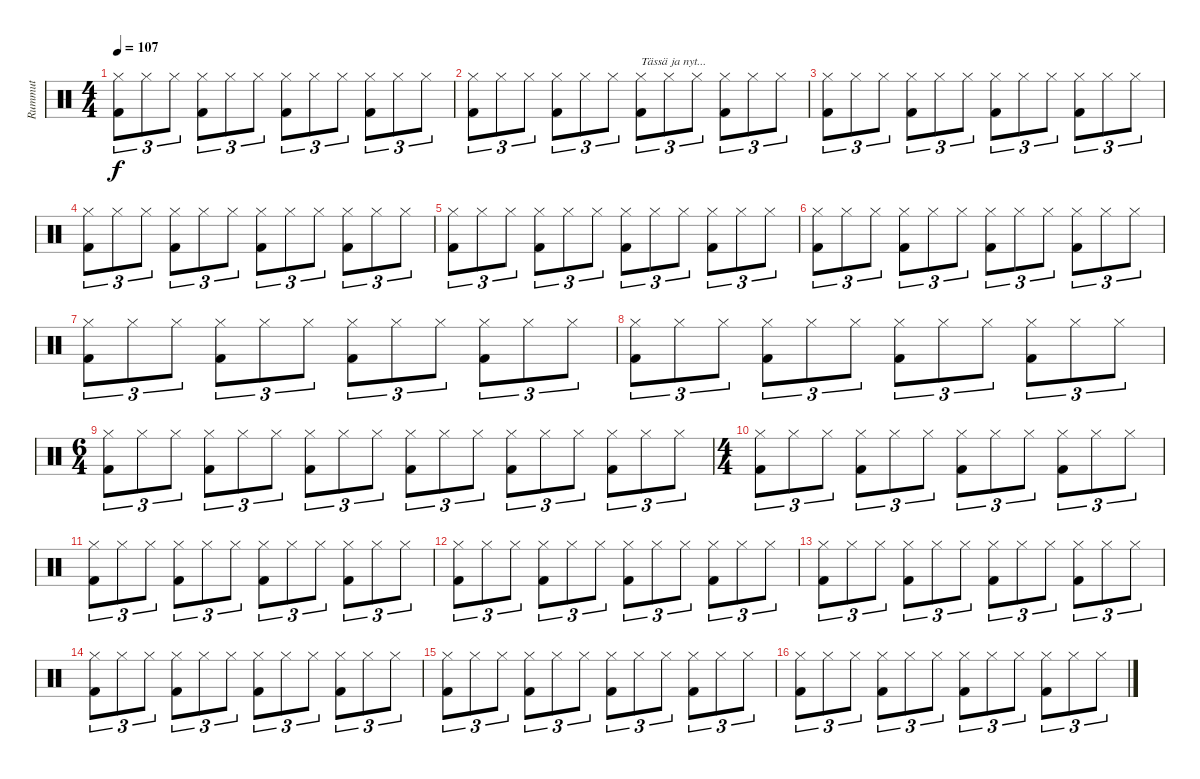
\track ("Rummut" "Rummut") {instrument percussion}
\staff {score}
\articulation defaults
\ts (4 4)
\tempo 107
\clef neutral
\ks c
("Hi-Hat (closed)" "Kick (hit) 2").8{tu (3 2) dy f} "Hi-Hat (closed)".8{tu (3 2)} "Hi-Hat (closed)".8{tu (3 2)} ("Hi-Hat (closed)" "Kick (hit) 2").8{tu (3 2)} "Hi-Hat (closed)".8{tu (3 2)} "Hi-Hat (closed)".8{tu (3 2)} ("Hi-Hat (closed)" "Kick (hit) 2").8{tu (3 2)} "Hi-Hat (closed)".8{tu (3 2)} "Hi-Hat (closed)".8{tu (3 2)} ("Hi-Hat (closed)" "Kick (hit) 2").8{tu (3 2)} "Hi-Hat (closed)".8{tu (3 2)} "Hi-Hat (closed)".8{tu (3 2)} |
("Hi-Hat (closed)" "Kick (hit) 2").8{tu (3 2)} "Hi-Hat (closed)".8{tu (3 2)} "Hi-Hat (closed)".8{tu (3 2)} ("Hi-Hat (closed)" "Kick (hit) 2").8{tu (3 2)} "Hi-Hat (closed)".8{tu (3 2)} "Hi-Hat (closed)".8{tu (3 2)} ("Hi-Hat (closed)" "Kick (hit) 2").8{tu (3 2) txt "Tässä ja nyt..."} "Hi-Hat (closed)".8{tu (3 2)} "Hi-Hat (closed)".8{tu (3 2)} ("Hi-Hat (closed)" "Kick (hit) 2").8{tu (3 2)} "Hi-Hat (closed)".8{tu (3 2)} "Hi-Hat (closed)".8{tu (3 2)} |
("Hi-Hat (closed)" "Kick (hit) 2").8{tu (3 2)} "Hi-Hat (closed)".8{tu (3 2)} "Hi-Hat (closed)".8{tu (3 2)} ("Hi-Hat (closed)" "Kick (hit) 2").8{tu (3 2)} "Hi-Hat (closed)".8{tu (3 2)} "Hi-Hat (closed)".8{tu (3 2)} ("Hi-Hat (closed)" "Kick (hit) 2").8{tu (3 2)} "Hi-Hat (closed)".8{tu (3 2)} "Hi-Hat (closed)".8{tu (3 2)} ("Hi-Hat (closed)" "Kick (hit) 2").8{tu (3 2)} "Hi-Hat (closed)".8{tu (3 2)} "Hi-Hat (closed)".8{tu (3 2)} |
("Hi-Hat (closed)" "Kick (hit) 2").8{tu (3 2)} "Hi-Hat (closed)".8{tu (3 2)} "Hi-Hat (closed)".8{tu (3 2)} ("Hi-Hat (closed)" "Kick (hit) 2").8{tu (3 2)} "Hi-Hat (closed)".8{tu (3 2)} "Hi-Hat (closed)".8{tu (3 2)} ("Hi-Hat (closed)" "Kick (hit) 2").8{tu (3 2)} "Hi-Hat (closed)".8{tu (3 2)} "Hi-Hat (closed)".8{tu (3 2)} ("Hi-Hat (closed)" "Kick (hit) 2").8{tu (3 2)} "Hi-Hat (closed)".8{tu (3 2)} "Hi-Hat (closed)".8{tu (3 2)} |
("Hi-Hat (closed)" "Kick (hit) 2").8{tu (3 2)} "Hi-Hat (closed)".8{tu (3 2)} "Hi-Hat (closed)".8{tu (3 2)} ("Hi-Hat (closed)" "Kick (hit) 2").8{tu (3 2)} "Hi-Hat (closed)".8{tu (3 2)} "Hi-Hat (closed)".8{tu (3 2)} ("Hi-Hat (closed)" "Kick (hit) 2").8{tu (3 2)} "Hi-Hat (closed)".8{tu (3 2)} "Hi-Hat (closed)".8{tu (3 2)} ("Hi-Hat (closed)" "Kick (hit) 2").8{tu (3 2)} "Hi-Hat (closed)".8{tu (3 2)} "Hi-Hat (closed)".8{tu (3 2)} |
("Hi-Hat (closed)" "Kick (hit) 2").8{tu (3 2)} "Hi-Hat (closed)".8{tu (3 2)} "Hi-Hat (closed)".8{tu (3 2)} ("Hi-Hat (closed)" "Kick (hit) 2").8{tu (3 2)} "Hi-Hat (closed)".8{tu (3 2)} "Hi-Hat (closed)".8{tu (3 2)} ("Hi-Hat (closed)" "Kick (hit) 2").8{tu (3 2)} "Hi-Hat (closed)".8{tu (3 2)} "Hi-Hat (closed)".8{tu (3 2)} ("Hi-Hat (closed)" "Kick (hit) 2").8{tu (3 2)} "Hi-Hat (closed)".8{tu (3 2)} "Hi-Hat (closed)".8{tu (3 2)} |
("Hi-Hat (closed)" "Kick (hit) 2").8{tu (3 2)} "Hi-Hat (closed)".8{tu (3 2)} "Hi-Hat (closed)".8{tu (3 2)} ("Hi-Hat (closed)" "Kick (hit) 2").8{tu (3 2)} "Hi-Hat (closed)".8{tu (3 2)} "Hi-Hat (closed)".8{tu (3 2)} ("Hi-Hat (closed)" "Kick (hit) 2").8{tu (3 2)} "Hi-Hat (closed)".8{tu (3 2)} "Hi-Hat (closed)".8{tu (3 2)} ("Hi-Hat (closed)" "Kick (hit) 2").8{tu (3 2)} "Hi-Hat (closed)".8{tu (3 2)} "Hi-Hat (closed)".8{tu (3 2)} |
("Hi-Hat (closed)" "Kick (hit) 2").8{tu (3 2)} "Hi-Hat (closed)".8{tu (3 2)} "Hi-Hat (closed)".8{tu (3 2)} ("Hi-Hat (closed)" "Kick (hit) 2").8{tu (3 2)} "Hi-Hat (closed)".8{tu (3 2)} "Hi-Hat (closed)".8{tu (3 2)} ("Hi-Hat (closed)" "Kick (hit) 2").8{tu (3 2)} "Hi-Hat (closed)".8{tu (3 2)} "Hi-Hat (closed)".8{tu (3 2)} ("Hi-Hat (closed)" "Kick (hit) 2").8{tu (3 2)} "Hi-Hat (closed)".8{tu (3 2)} "Hi-Hat (closed)".8{tu (3 2)} |
\ts (6 4)
("Hi-Hat (closed)" "Kick (hit) 2").8{tu (3 2)} "Hi-Hat (closed)".8{tu (3 2)} "Hi-Hat (closed)".8{tu (3 2)} ("Hi-Hat (closed)" "Kick (hit) 2").8{tu (3 2)} "Hi-Hat (closed)".8{tu (3 2)} "Hi-Hat (closed)".8{tu (3 2)} ("Hi-Hat (closed)" "Kick (hit) 2").8{tu (3 2)} "Hi-Hat (closed)".8{tu (3 2)} "Hi-Hat (closed)".8{tu (3 2)} ("Hi-Hat (closed)" "Kick (hit) 2").8{tu (3 2)} "Hi-Hat (closed)".8{tu (3 2)} "Hi-Hat (closed)".8{tu (3 2)} ("Hi-Hat (closed)" "Kick (hit) 2").8{tu (3 2)} "Hi-Hat (closed)".8{tu (3 2)} "Hi-Hat (closed)".8{tu (3 2)} ("Hi-Hat (closed)" "Kick (hit) 2").8{tu (3 2)} "Hi-Hat (closed)".8{tu (3 2)} "Hi-Hat (closed)".8{tu (3 2)} |
\ts (4 4)
("Hi-Hat (closed)" "Kick (hit) 2").8{tu (3 2)} "Hi-Hat (closed)".8{tu (3 2)} "Hi-Hat (closed)".8{tu (3 2)} ("Hi-Hat (closed)" "Kick (hit) 2").8{tu (3 2)} "Hi-Hat (closed)".8{tu (3 2)} "Hi-Hat (closed)".8{tu (3 2)} ("Hi-Hat (closed)" "Kick (hit) 2").8{tu (3 2)} "Hi-Hat (closed)".8{tu (3 2)} "Hi-Hat (closed)".8{tu (3 2)} ("Hi-Hat (closed)" "Kick (hit) 2").8{tu (3 2)} "Hi-Hat (closed)".8{tu (3 2)} "Hi-Hat (closed)".8{tu (3 2)} |
("Hi-Hat (closed)" "Kick (hit) 2").8{tu (3 2)} "Hi-Hat (closed)".8{tu (3 2)} "Hi-Hat (closed)".8{tu (3 2)} ("Hi-Hat (closed)" "Kick (hit) 2").8{tu (3 2)} "Hi-Hat (closed)".8{tu (3 2)} "Hi-Hat (closed)".8{tu (3 2)} ("Hi-Hat (closed)" "Kick (hit) 2").8{tu (3 2)} "Hi-Hat (closed)".8{tu (3 2)} "Hi-Hat (closed)".8{tu (3 2)} ("Hi-Hat (closed)" "Kick (hit) 2").8{tu (3 2)} "Hi-Hat (closed)".8{tu (3 2)} "Hi-Hat (closed)".8{tu (3 2)} |
("Hi-Hat (closed)" "Kick (hit) 2").8{tu (3 2)} "Hi-Hat (closed)".8{tu (3 2)} "Hi-Hat (closed)".8{tu (3 2)} ("Hi-Hat (closed)" "Kick (hit) 2").8{tu (3 2)} "Hi-Hat (closed)".8{tu (3 2)} "Hi-Hat (closed)".8{tu (3 2)} ("Hi-Hat (closed)" "Kick (hit) 2").8{tu (3 2)} "Hi-Hat (closed)".8{tu (3 2)} "Hi-Hat (closed)".8{tu (3 2)} ("Hi-Hat (closed)" "Kick (hit) 2").8{tu (3 2)} "Hi-Hat (closed)".8{tu (3 2)} "Hi-Hat (closed)".8{tu (3 2)} |
("Hi-Hat (closed)" "Kick (hit) 2").8{tu (3 2)} "Hi-Hat (closed)".8{tu (3 2)} "Hi-Hat (closed)".8{tu (3 2)} ("Hi-Hat (closed)" "Kick (hit) 2").8{tu (3 2)} "Hi-Hat (closed)".8{tu (3 2)} "Hi-Hat (closed)".8{tu (3 2)} ("Hi-Hat (closed)" "Kick (hit) 2").8{tu (3 2)} "Hi-Hat (closed)".8{tu (3 2)} "Hi-Hat (closed)".8{tu (3 2)} ("Hi-Hat (closed)" "Kick (hit) 2").8{tu (3 2)} "Hi-Hat (closed)".8{tu (3 2)} "Hi-Hat (closed)".8{tu (3 2)} |
("Hi-Hat (closed)" "Kick (hit) 2").8{tu (3 2)} "Hi-Hat (closed)".8{tu (3 2)} "Hi-Hat (closed)".8{tu (3 2)} ("Hi-Hat (closed)" "Kick (hit) 2").8{tu (3 2)} "Hi-Hat (closed)".8{tu (3 2)} "Hi-Hat (closed)".8{tu (3 2)} ("Hi-Hat (closed)" "Kick (hit) 2").8{tu (3 2)} "Hi-Hat (closed)".8{tu (3 2)} "Hi-Hat (closed)".8{tu (3 2)} ("Hi-Hat (closed)" "Kick (hit) 2").8{tu (3 2)} "Hi-Hat (closed)".8{tu (3 2)} "Hi-Hat (closed)".8{tu (3 2)} |
("Hi-Hat (closed)" "Kick (hit) 2").8{tu (3 2)} "Hi-Hat (closed)".8{tu (3 2)} "Hi-Hat (closed)".8{tu (3 2)} ("Hi-Hat (closed)" "Kick (hit) 2").8{tu (3 2)} "Hi-Hat (closed)".8{tu (3 2)} "Hi-Hat (closed)".8{tu (3 2)} ("Hi-Hat (closed)" "Kick (hit) 2").8{tu (3 2)} "Hi-Hat (closed)".8{tu (3 2)} "Hi-Hat (closed)".8{tu (3 2)} ("Hi-Hat (closed)" "Kick (hit) 2").8{tu (3 2)} "Hi-Hat (closed)".8{tu (3 2)} "Hi-Hat (closed)".8{tu (3 2)} |
("Hi-Hat (closed)" "Kick (hit) 2").8{tu (3 2)} "Hi-Hat (closed)".8{tu (3 2)} "Hi-Hat (closed)".8{tu (3 2)} ("Hi-Hat (closed)" "Kick (hit) 2").8{tu (3 2)} "Hi-Hat (closed)".8{tu (3 2)} "Hi-Hat (closed)".8{tu (3 2)} ("Hi-Hat (closed)" "Kick (hit) 2").8{tu (3 2)} "Hi-Hat (closed)".8{tu (3 2)} "Hi-Hat (closed)".8{tu (3 2)} ("Hi-Hat (closed)" "Kick (hit) 2").8{tu (3 2)} "Hi-Hat (closed)".8{tu (3 2)} "Hi-Hat (closed)".8{tu (3 2)}
